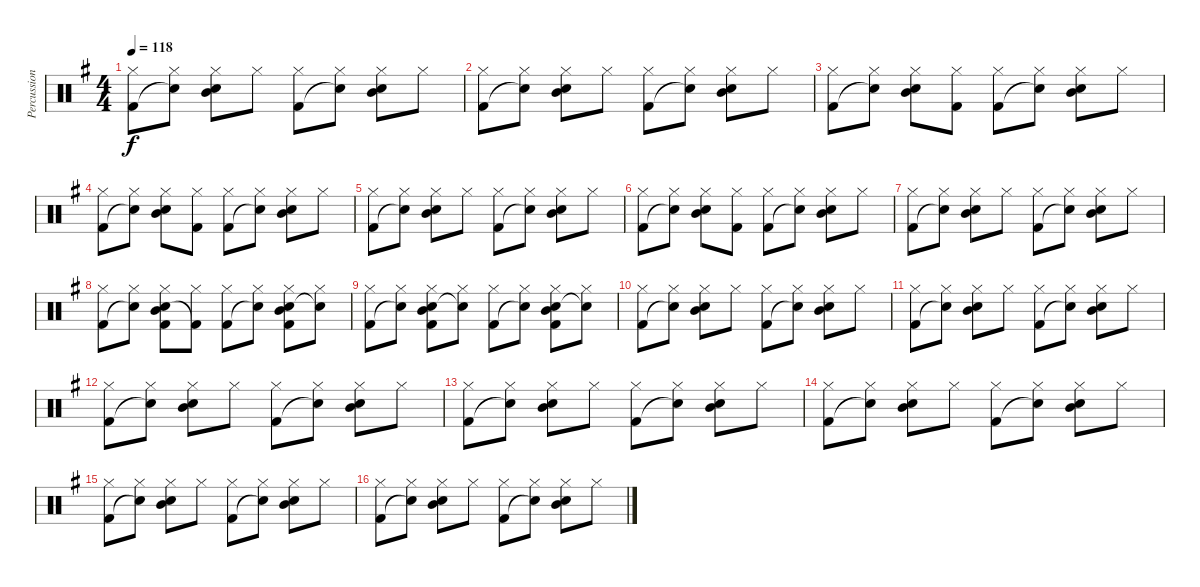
\track ("Percussion" "Percussion") {instrument percussion}
\staff {score}
\articulation defaults
\ts (4 4)
\tempo 118
\clef neutral
\ks g
("Hi-Hat (closed)" "Kick (hit) 2").8{dy f} ("Hi-Hat (closed)" "Snare (hit)"{t}).8 ("Hi-Hat (closed)" "Snare (hit) 2" "Mid Tom (hit)").8 "Hi-Hat (closed)".8 ("Hi-Hat (closed)" "Kick (hit) 2").8 ("Hi-Hat (closed)" "Snare (hit)"{t}).8 ("Hi-Hat (closed)" "Snare (hit) 2" "Mid Tom (hit)").8 "Hi-Hat (closed)".8 |
("Hi-Hat (closed)" "Kick (hit) 2").8 ("Hi-Hat (closed)" "Snare (hit)"{t}).8 ("Hi-Hat (closed)" "Snare (hit) 2" "Mid Tom (hit)").8 "Hi-Hat (closed)".8 ("Hi-Hat (closed)" "Kick (hit) 2").8 ("Hi-Hat (closed)" "Snare (hit)"{t}).8 ("Hi-Hat (closed)" "Snare (hit) 2" "Mid Tom (hit)").8 "Hi-Hat (closed)".8 |
("Hi-Hat (closed)" "Kick (hit) 2").8 ("Hi-Hat (closed)" "Snare (hit)"{t}).8 ("Hi-Hat (closed)" "Snare (hit) 2" "Mid Tom (hit)").8 ("Hi-Hat (closed)" "Kick (hit) 2").8 ("Hi-Hat (closed)" "Kick (hit) 2").8 ("Hi-Hat (closed)" "Snare (hit)"{t}).8 ("Hi-Hat (closed)" "Snare (hit) 2" "Mid Tom (hit)").8 "Hi-Hat (closed)".8 |
("Hi-Hat (closed)" "Kick (hit) 2").8 ("Hi-Hat (closed)" "Snare (hit)"{t}).8 ("Hi-Hat (closed)" "Snare (hit) 2" "Mid Tom (hit)").8 ("Hi-Hat (closed)" "Kick (hit) 2").8 ("Hi-Hat (closed)" "Kick (hit) 2").8 ("Hi-Hat (closed)" "Snare (hit)"{t}).8 ("Hi-Hat (closed)" "Snare (hit) 2" "Mid Tom (hit)").8 "Hi-Hat (closed)".8 |
("Hi-Hat (closed)" "Kick (hit) 2").8 ("Hi-Hat (closed)" "Snare (hit)"{t}).8 ("Hi-Hat (closed)" "Snare (hit) 2" "Mid Tom (hit)").8 "Hi-Hat (closed)".8 ("Hi-Hat (closed)" "Kick (hit) 2").8 ("Hi-Hat (closed)" "Snare (hit)"{t}).8 ("Hi-Hat (closed)" "Snare (hit) 2" "Mid Tom (hit)").8 "Hi-Hat (closed)".8 |
("Hi-Hat (closed)" "Kick (hit) 2").8 ("Hi-Hat (closed)" "Snare (hit)"{t}).8 ("Hi-Hat (closed)" "Snare (hit) 2" "Mid Tom (hit)").8 ("Hi-Hat (closed)" "Kick (hit) 2").8 ("Hi-Hat (closed)" "Kick (hit) 2").8 ("Hi-Hat (closed)" "Snare (hit)"{t}).8 ("Hi-Hat (closed)" "Snare (hit) 2" "Mid Tom (hit)").8 "Hi-Hat (closed)".8 |
("Hi-Hat (closed)" "Kick (hit) 2").8 ("Hi-Hat (closed)" "Snare (hit)"{t}).8 ("Hi-Hat (closed)" "Snare (hit) 2" "Mid Tom (hit)").8 "Hi-Hat (closed)".8 ("Hi-Hat (closed)" "Kick (hit) 2").8 ("Hi-Hat (closed)" "Snare (hit)"{t}).8 ("Hi-Hat (closed)" "Snare (hit) 2" "Mid Tom (hit)").8 "Hi-Hat (closed)".8 |
("Hi-Hat (closed)" "Kick (hit) 2").8 ("Hi-Hat (closed)" "Snare (hit)"{t}).8 ("Hi-Hat (closed)" "Snare (hit) 2" "Mid Tom (hit)" "Kick (hit) 2").8 ("Hi-Hat (closed)" "Kick (hit) 2"{t}).8 ("Hi-Hat (closed)" "Kick (hit) 2").8 ("Hi-Hat (closed)" "Snare (hit)"{t}).8 ("Hi-Hat (closed)" "Snare (hit) 2" "Mid Tom (hit)" "Kick (hit) 2").8 ("Hi-Hat (closed)" "Snare (hit)"{t}).8 |
("Hi-Hat (closed)" "Kick (hit) 2").8 ("Hi-Hat (closed)" "Snare (hit)"{t}).8 ("Hi-Hat (closed)" "Snare (hit) 2" "Mid Tom (hit)" "Kick (hit) 2").8 ("Hi-Hat (closed)" "Snare (hit)"{t}).8 ("Hi-Hat (closed)" "Kick (hit) 2").8 ("Hi-Hat (closed)" "Snare (hit)"{t}).8 ("Hi-Hat (closed)" "Snare (hit) 2" "Mid Tom (hit)" "Kick (hit) 2").8 ("Hi-Hat (closed)" "Snare (hit)"{t}).8 |
("Hi-Hat (closed)" "Kick (hit) 2").8 ("Hi-Hat (closed)" "Snare (hit)"{t}).8 ("Hi-Hat (closed)" "Snare (hit) 2" "Mid Tom (hit)").8 "Hi-Hat (closed)".8 ("Hi-Hat (closed)" "Kick (hit) 2").8 ("Hi-Hat (closed)" "Snare (hit)"{t}).8 ("Hi-Hat (closed)" "Snare (hit) 2" "Mid Tom (hit)").8 "Hi-Hat (closed)".8 |
("Hi-Hat (closed)" "Kick (hit) 2").8 ("Hi-Hat (closed)" "Snare (hit)"{t}).8 ("Hi-Hat (closed)" "Snare (hit) 2" "Mid Tom (hit)").8 "Hi-Hat (closed)".8 ("Hi-Hat (closed)" "Kick (hit) 2").8 ("Hi-Hat (closed)" "Snare (hit)"{t}).8 ("Hi-Hat (closed)" "Snare (hit) 2" "Mid Tom (hit)").8 "Hi-Hat (closed)".8 |
("Hi-Hat (closed)" "Kick (hit) 2").8 ("Hi-Hat (closed)" "Snare (hit)"{t}).8 ("Hi-Hat (closed)" "Snare (hit) 2" "Mid Tom (hit)").8 "Hi-Hat (closed)".8 ("Hi-Hat (closed)" "Kick (hit) 2").8 ("Hi-Hat (closed)" "Snare (hit)"{t}).8 ("Hi-Hat (closed)" "Snare (hit) 2" "Mid Tom (hit)").8 "Hi-Hat (closed)".8 |
("Hi-Hat (closed)" "Kick (hit) 2").8 ("Hi-Hat (closed)" "Snare (hit)"{t}).8 ("Hi-Hat (closed)" "Snare (hit) 2" "Mid Tom (hit)").8 "Hi-Hat (closed)".8 ("Hi-Hat (closed)" "Kick (hit) 2").8 ("Hi-Hat (closed)" "Snare (hit)"{t}).8 ("Hi-Hat (closed)" "Snare (hit) 2" "Mid Tom (hit)").8 "Hi-Hat (closed)".8 |
("Hi-Hat (closed)" "Kick (hit) 2").8 ("Hi-Hat (closed)" "Snare (hit)"{t}).8 ("Hi-Hat (closed)" "Snare (hit) 2" "Mid Tom (hit)").8 "Hi-Hat (closed)".8 ("Hi-Hat (closed)" "Kick (hit) 2").8 ("Hi-Hat (closed)" "Snare (hit)"{t}).8 ("Hi-Hat (closed)" "Snare (hit) 2" "Mid Tom (hit)").8 "Hi-Hat (closed)".8 |
("Hi-Hat (closed)" "Kick (hit) 2").8 ("Hi-Hat (closed)" "Snare (hit)"{t}).8 ("Hi-Hat (closed)" "Snare (hit) 2" "Mid Tom (hit)").8 "Hi-Hat (closed)".8 ("Hi-Hat (closed)" "Kick (hit) 2").8 ("Hi-Hat (closed)" "Snare (hit)"{t}).8 ("Hi-Hat (closed)" "Snare (hit) 2" "Mid Tom (hit)").8 "Hi-Hat (closed)".8 |
("Hi-Hat (closed)" "Kick (hit) 2").8 ("Hi-Hat (closed)" "Snare (hit)"{t}).8 ("Hi-Hat (closed)" "Snare (hit) 2" "Mid Tom (hit)").8 "Hi-Hat (closed)".8 ("Hi-Hat (closed)" "Kick (hit) 2").8 ("Hi-Hat (closed)" "Snare (hit)"{t}).8 ("Hi-Hat (closed)" "Snare (hit) 2" "Mid Tom (hit)").8 "Hi-Hat (closed)".8
